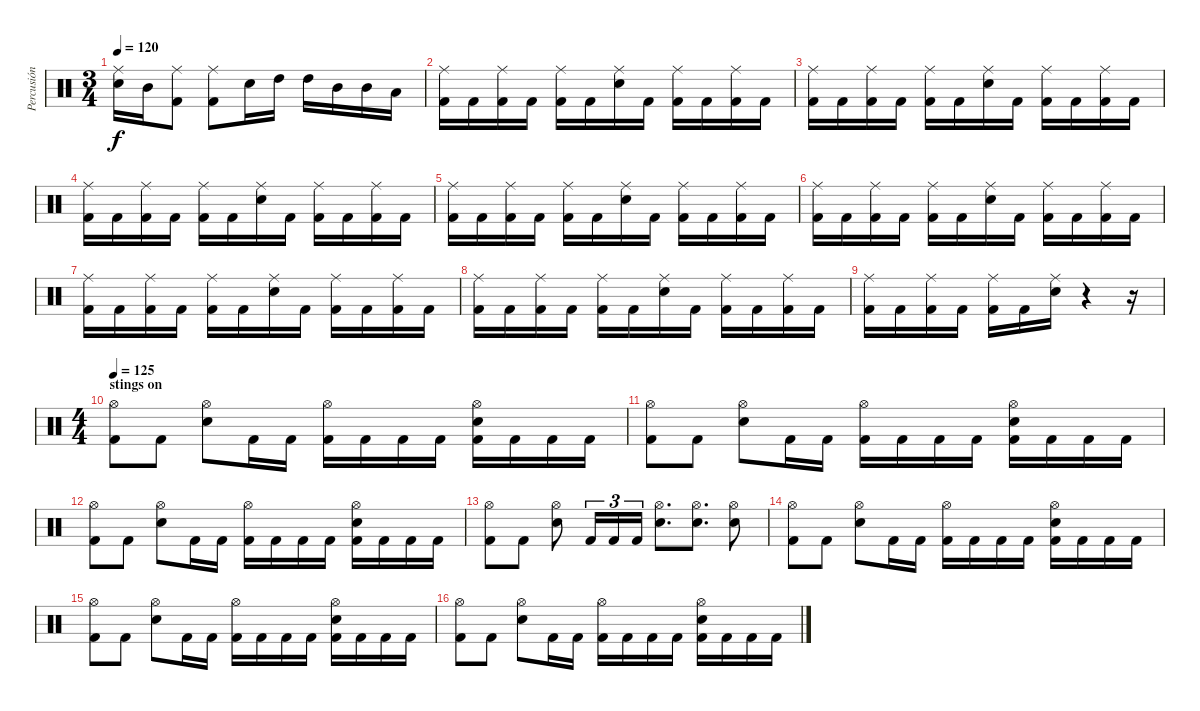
\track ("Percusión" "Percusión") {instrument percussion}
\staff {score}
\articulation defaults
\ts (3 4)
\tempo 120
\clef neutral
\ks c
("Ride (middle)" "Electric Snare (hit)").16{dy f} "Mid Tom (hit)".16 ("Ride (middle)" "Kick (hit) 2").8 ("Ride (middle)" "Kick (hit) 2").8 "Electric Snare (hit)".16 "High Tom (hit)".16 "High Tom (hit)".16 "Mid Tom (hit)".16 "Mid Tom (hit)".16 "Low Tom (hit)".16 |
("Ride (middle)" "Kick (hit) 2").16 "Kick (hit) 2".16 ("Ride (middle)" "Kick (hit) 2").16 "Kick (hit) 2".16 ("Ride (middle)" "Kick (hit) 2").16 "Kick (hit) 2".16 ("Ride (middle)" "Electric Snare (hit)").16 "Kick (hit) 2".16 ("Ride (middle)" "Kick (hit) 2").16 "Kick (hit) 2".16 ("Ride (middle)" "Kick (hit) 2").16 "Kick (hit) 2".16 |
("Ride (middle)" "Kick (hit) 2").16 "Kick (hit) 2".16 ("Ride (middle)" "Kick (hit) 2").16 "Kick (hit) 2".16 ("Ride (middle)" "Kick (hit) 2").16 "Kick (hit) 2".16 ("Ride (middle)" "Electric Snare (hit)").16 "Kick (hit) 2".16 ("Ride (middle)" "Kick (hit) 2").16 "Kick (hit) 2".16 ("Ride (middle)" "Kick (hit) 2").16 "Kick (hit) 2".16 |
("Ride (middle)" "Kick (hit) 2").16 "Kick (hit) 2".16 ("Ride (middle)" "Kick (hit) 2").16 "Kick (hit) 2".16 ("Ride (middle)" "Kick (hit) 2").16 "Kick (hit) 2".16 ("Ride (middle)" "Electric Snare (hit)").16 "Kick (hit) 2".16 ("Ride (middle)" "Kick (hit) 2").16 "Kick (hit) 2".16 ("Ride (middle)" "Kick (hit) 2").16 "Kick (hit) 2".16 |
("Ride (middle)" "Kick (hit) 2").16 "Kick (hit) 2".16 ("Ride (middle)" "Kick (hit) 2").16 "Kick (hit) 2".16 ("Ride (middle)" "Kick (hit) 2").16 "Kick (hit) 2".16 ("Ride (middle)" "Electric Snare (hit)").16 "Kick (hit) 2".16 ("Ride (middle)" "Kick (hit) 2").16 "Kick (hit) 2".16 ("Ride (middle)" "Kick (hit) 2").16 "Kick (hit) 2".16 |
("Ride (middle)" "Kick (hit) 2").16 "Kick (hit) 2".16 ("Ride (middle)" "Kick (hit) 2").16 "Kick (hit) 2".16 ("Ride (middle)" "Kick (hit) 2").16 "Kick (hit) 2".16 ("Ride (middle)" "Electric Snare (hit)").16 "Kick (hit) 2".16 ("Ride (middle)" "Kick (hit) 2").16 "Kick (hit) 2".16 ("Ride (middle)" "Kick (hit) 2").16 "Kick (hit) 2".16 |
("Ride (middle)" "Kick (hit) 2").16 "Kick (hit) 2".16 ("Ride (middle)" "Kick (hit) 2").16 "Kick (hit) 2".16 ("Ride (middle)" "Kick (hit) 2").16 "Kick (hit) 2".16 ("Ride (middle)" "Electric Snare (hit)").16 "Kick (hit) 2".16 ("Ride (middle)" "Kick (hit) 2").16 "Kick (hit) 2".16 ("Ride (middle)" "Kick (hit) 2").16 "Kick (hit) 2".16 |
("Ride (middle)" "Kick (hit) 2").16 "Kick (hit) 2".16 ("Ride (middle)" "Kick (hit) 2").16 "Kick (hit) 2".16 ("Ride (middle)" "Kick (hit) 2").16 "Kick (hit) 2".16 ("Ride (middle)" "Electric Snare (hit)").16 "Kick (hit) 2".16 ("Ride (middle)" "Kick (hit) 2").16 "Kick (hit) 2".16 ("Ride (middle)" "Kick (hit) 2").16 "Kick (hit) 2".16 |
("Ride (middle)" "Kick (hit) 2").16 "Kick (hit) 2".16 ("Ride (middle)" "Kick (hit) 2").16 "Kick (hit) 2".16 ("Ride (middle)" "Kick (hit) 2").16 "Kick (hit) 2".16 ("Ride (middle)" "Electric Snare (hit)").16 r.4 r.16 |
\ts (4 4)
\section ("" "stings on")
\tempo 125
("Hi-Hat (open)" "Kick (hit) 2").8 "Kick (hit) 2".8 ("Hi-Hat (open)" "Electric Snare (hit)").8 "Kick (hit) 2".16 "Kick (hit) 2".16 ("Hi-Hat (open)" "Kick (hit) 2").16 "Kick (hit) 2".16 "Kick (hit) 2".16 "Kick (hit) 2".16 ("Hi-Hat (open)" "Electric Snare (hit)" "Kick (hit) 2").16 "Kick (hit) 2".16 "Kick (hit) 2".16 "Kick (hit) 2".16 |
("Hi-Hat (open)" "Kick (hit) 2").8 "Kick (hit) 2".8 ("Hi-Hat (open)" "Electric Snare (hit)").8 "Kick (hit) 2".16 "Kick (hit) 2".16 ("Hi-Hat (open)" "Kick (hit) 2").16 "Kick (hit) 2".16 "Kick (hit) 2".16 "Kick (hit) 2".16 ("Hi-Hat (open)" "Electric Snare (hit)" "Kick (hit) 2").16 "Kick (hit) 2".16 "Kick (hit) 2".16 "Kick (hit) 2".16 |
("Hi-Hat (open)" "Kick (hit) 2").8 "Kick (hit) 2".8 ("Hi-Hat (open)" "Electric Snare (hit)").8 "Kick (hit) 2".16 "Kick (hit) 2".16 ("Hi-Hat (open)" "Kick (hit) 2").16 "Kick (hit) 2".16 "Kick (hit) 2".16 "Kick (hit) 2".16 ("Hi-Hat (open)" "Electric Snare (hit)" "Kick (hit) 2").16 "Kick (hit) 2".16 "Kick (hit) 2".16 "Kick (hit) 2".16 |
("Hi-Hat (open)" "Kick (hit) 2").8 "Kick (hit) 2".8 ("Hi-Hat (open)" "Electric Snare (hit)").8 "Kick (hit) 2".16{tu (3 2)} "Kick (hit) 2".16{tu (3 2)} "Kick (hit) 2".16{tu (3 2)} ("Hi-Hat (open)" "Electric Snare (hit)").8{d} ("Hi-Hat (open)" "Electric Snare (hit)").8{d} ("Hi-Hat (open)" "Electric Snare (hit)").8 |
("Hi-Hat (open)" "Kick (hit) 2").8 "Kick (hit) 2".8 ("Hi-Hat (open)" "Electric Snare (hit)").8 "Kick (hit) 2".16 "Kick (hit) 2".16 ("Hi-Hat (open)" "Kick (hit) 2").16 "Kick (hit) 2".16 "Kick (hit) 2".16 "Kick (hit) 2".16 ("Hi-Hat (open)" "Electric Snare (hit)" "Kick (hit) 2").16 "Kick (hit) 2".16 "Kick (hit) 2".16 "Kick (hit) 2".16 |
("Hi-Hat (open)" "Kick (hit) 2").8 "Kick (hit) 2".8 ("Hi-Hat (open)" "Electric Snare (hit)").8 "Kick (hit) 2".16 "Kick (hit) 2".16 ("Hi-Hat (open)" "Kick (hit) 2").16 "Kick (hit) 2".16 "Kick (hit) 2".16 "Kick (hit) 2".16 ("Hi-Hat (open)" "Electric Snare (hit)" "Kick (hit) 2").16 "Kick (hit) 2".16 "Kick (hit) 2".16 "Kick (hit) 2".16 |
("Hi-Hat (open)" "Kick (hit) 2").8 "Kick (hit) 2".8 ("Hi-Hat (open)" "Electric Snare (hit)").8 "Kick (hit) 2".16 "Kick (hit) 2".16 ("Hi-Hat (open)" "Kick (hit) 2").16 "Kick (hit) 2".16 "Kick (hit) 2".16 "Kick (hit) 2".16 ("Hi-Hat (open)" "Electric Snare (hit)" "Kick (hit) 2").16 "Kick (hit) 2".16 "Kick (hit) 2".16 "Kick (hit) 2".16
